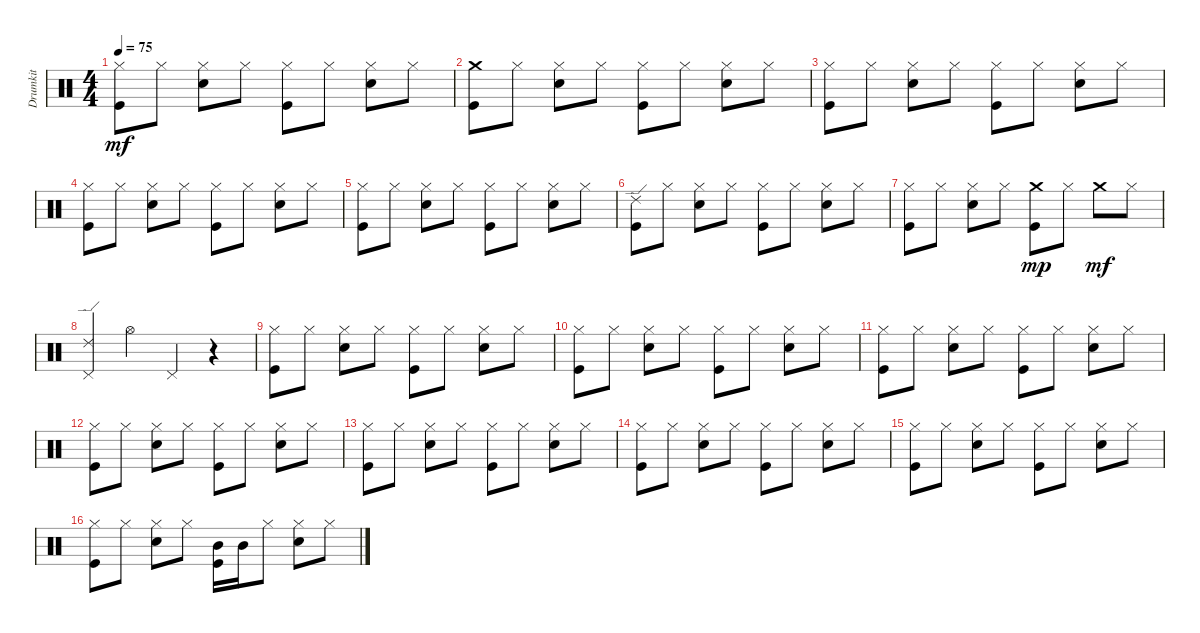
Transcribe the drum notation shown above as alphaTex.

\track ("Drumkit" "Drumkit") {instrument percussion}
\staff {score}
\articulation defaults
\ts (4 4)
\tempo 75
\clef neutral
\ks c
("Kick (hit)" "Hi-Hat (closed)").8{dy mf} "Hi-Hat (closed)".8 ("Snare (hit) 2" "Hi-Hat (closed)").8 "Hi-Hat (closed)".8 ("Kick (hit)" "Hi-Hat (closed)").8 "Hi-Hat (closed)".8 ("Snare (hit) 2" "Hi-Hat (closed)").8 "Hi-Hat (closed)".8 |
("Kick (hit)" "Crash medium (hit)").8 "Hi-Hat (closed)".8 ("Snare (hit) 2" "Hi-Hat (closed)").8 "Hi-Hat (closed)".8 ("Kick (hit)" "Hi-Hat (closed)").8 "Hi-Hat (closed)".8 ("Snare (hit) 2" "Hi-Hat (closed)").8 "Hi-Hat (closed)".8 |
("Kick (hit)" "Hi-Hat (closed)").8 "Hi-Hat (closed)".8 ("Snare (hit) 2" "Hi-Hat (closed)").8 "Hi-Hat (closed)".8 ("Kick (hit)" "Hi-Hat (closed)").8 "Hi-Hat (closed)".8 ("Snare (hit) 2" "Hi-Hat (closed)").8 "Hi-Hat (closed)".8 |
("Kick (hit)" "Hi-Hat (closed)").8 "Hi-Hat (closed)".8 ("Snare (hit) 2" "Hi-Hat (closed)").8 "Hi-Hat (closed)".8 ("Kick (hit)" "Hi-Hat (closed)").8 "Hi-Hat (closed)".8 ("Snare (hit) 2" "Hi-Hat (closed)").8 "Hi-Hat (closed)".8 |
("Kick (hit)" "Hi-Hat (closed)").8 "Hi-Hat (closed)".8 ("Snare (hit) 2" "Hi-Hat (closed)").8 "Hi-Hat (closed)".8 ("Kick (hit)" "Hi-Hat (closed)").8 "Hi-Hat (closed)".8 ("Snare (hit) 2" "Hi-Hat (closed)").8 "Hi-Hat (closed)".8 |
("Kick (hit)" "Ride (edge) 2").8 "Hi-Hat (closed)".8 ("Snare (hit) 2" "Hi-Hat (closed)").8 "Hi-Hat (closed)".8 ("Kick (hit)" "Hi-Hat (closed)").8 "Hi-Hat (closed)".8 ("Snare (hit) 2" "Hi-Hat (closed)").8 "Hi-Hat (closed)".8 |
("Kick (hit)" "Hi-Hat (closed)").8 "Hi-Hat (closed)".8 ("Snare (hit) 2" "Hi-Hat (closed)").8 "Hi-Hat (closed)".8 ("Kick (hit)" "Crash medium (hit)").8{dy mp} "Hi-Hat (closed)".8 "Crash medium (hit)".8{dy mf} "Hi-Hat (closed)".8 |
("Ride (edge) 2" "Pedal Hi-Hat (hit)").4 "Hi-Hat (open)".4 "Pedal Hi-Hat (hit)".4 r.4 |
("Kick (hit)" "Hi-Hat (closed)").8 "Hi-Hat (closed)".8 ("Snare (hit) 2" "Hi-Hat (closed)").8 "Hi-Hat (closed)".8 ("Kick (hit)" "Hi-Hat (closed)").8 "Hi-Hat (closed)".8 ("Snare (hit) 2" "Hi-Hat (closed)").8 "Hi-Hat (closed)".8 |
("Kick (hit)" "Hi-Hat (closed)").8 "Hi-Hat (closed)".8 ("Snare (hit) 2" "Hi-Hat (closed)").8 "Hi-Hat (closed)".8 ("Kick (hit)" "Hi-Hat (closed)").8 "Hi-Hat (closed)".8 ("Snare (hit) 2" "Hi-Hat (closed)").8 "Hi-Hat (closed)".8 |
("Kick (hit)" "Hi-Hat (closed)").8 "Hi-Hat (closed)".8 ("Snare (hit) 2" "Hi-Hat (closed)").8 "Hi-Hat (closed)".8 ("Kick (hit)" "Hi-Hat (closed)").8 "Hi-Hat (closed)".8 ("Snare (hit) 2" "Hi-Hat (closed)").8 "Hi-Hat (closed)".8 |
("Kick (hit)" "Hi-Hat (closed)").8 "Hi-Hat (closed)".8 ("Snare (hit) 2" "Hi-Hat (closed)").8 "Hi-Hat (closed)".8 ("Kick (hit)" "Hi-Hat (closed)").8 "Hi-Hat (closed)".8 ("Snare (hit) 2" "Hi-Hat (closed)").8 "Hi-Hat (closed)".8 |
("Kick (hit)" "Hi-Hat (closed)").8 "Hi-Hat (closed)".8 ("Snare (hit) 2" "Hi-Hat (closed)").8 "Hi-Hat (closed)".8 ("Kick (hit)" "Hi-Hat (closed)").8 "Hi-Hat (closed)".8 ("Snare (hit) 2" "Hi-Hat (closed)").8 "Hi-Hat (closed)".8 |
("Kick (hit)" "Hi-Hat (closed)").8 "Hi-Hat (closed)".8 ("Snare (hit) 2" "Hi-Hat (closed)").8 "Hi-Hat (closed)".8 ("Kick (hit)" "Hi-Hat (closed)").8 "Hi-Hat (closed)".8 ("Snare (hit) 2" "Hi-Hat (closed)").8 "Hi-Hat (closed)".8 |
("Kick (hit)" "Hi-Hat (closed)").8 "Hi-Hat (closed)".8 ("Snare (hit) 2" "Hi-Hat (closed)").8 "Hi-Hat (closed)".8 ("Kick (hit)" "Hi-Hat (closed)").8 "Hi-Hat (closed)".8 ("Snare (hit) 2" "Hi-Hat (closed)").8 "Hi-Hat (closed)".8 |
("Kick (hit)" "Hi-Hat (closed)").8 "Hi-Hat (closed)".8 ("Snare (hit) 2" "Hi-Hat (closed)").8 "Hi-Hat (closed)".8 ("Mid Tom (hit)" "Kick (hit)").16 "Mid Tom (hit)".16 "Hi-Hat (closed)".8 ("Hi-Hat (closed)" "Snare (hit) 2").8 "Hi-Hat (closed)".8
